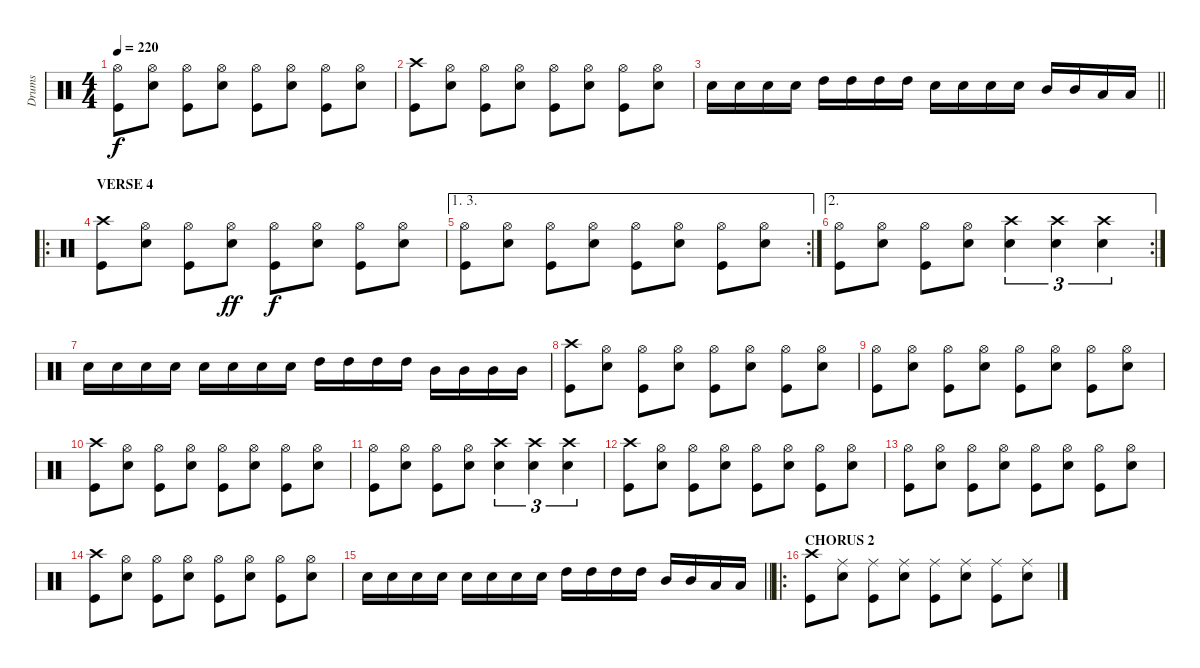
\track ("Drums" "Drums") {instrument percussion}
\staff {score}
\articulation defaults
\ts (4 4)
\tempo 220
\clef neutral
\ks c
("Hi-Hat (open)" "Kick (hit)").8{dy f} ("Hi-Hat (open)" "Snare (hit) 2").8 ("Hi-Hat (open)" "Kick (hit)").8 ("Hi-Hat (open)" "Snare (hit) 2").8 ("Hi-Hat (open)" "Kick (hit)").8 ("Hi-Hat (open)" "Snare (hit) 2").8 ("Hi-Hat (open)" "Kick (hit)").8 ("Hi-Hat (open)" "Snare (hit) 2").8 |
("Crash high (hit)" "Kick (hit)").8 ("Hi-Hat (open)" "Snare (hit) 2").8 ("Hi-Hat (open)" "Kick (hit)").8 ("Hi-Hat (open)" "Snare (hit) 2").8 ("Hi-Hat (open)" "Kick (hit)").8 ("Hi-Hat (open)" "Snare (hit) 2").8 ("Hi-Hat (open)" "Kick (hit)").8 ("Hi-Hat (open)" "Snare (hit) 2").8 |
\barLineRight lightlight "Snare (hit) 2".16 "Snare (hit) 2".16 "Snare (hit) 2".16 "Snare (hit) 2".16 "High Tom (hit)".16 "High Tom (hit)".16 "High Tom (hit)".16 "High Tom (hit)".16 "Snare (hit) 2".16 "Snare (hit) 2".16 "Snare (hit) 2".16 "Snare (hit) 2".16 "Mid Tom (hit)".16 "Mid Tom (hit)".16 "Low Tom (hit)".16 "Low Tom (hit)".16
|
\ro
\section ("" "VERSE 4")
("Crash high (hit)" "Kick (hit)").8 ("Hi-Hat (open)" "Snare (hit) 2").8 ("Hi-Hat (open)" "Kick (hit)").8 ("Hi-Hat (open)" "Snare (hit) 2").8{dy ff} ("Hi-Hat (open)" "Kick (hit)").8{dy f} ("Hi-Hat (open)" "Snare (hit) 2").8 ("Hi-Hat (open)" "Kick (hit)").8 ("Hi-Hat (open)" "Snare (hit) 2").8 |
\ae (1 3)
\rc 2
("Hi-Hat (open)" "Kick (hit)").8 ("Hi-Hat (open)" "Snare (hit) 2").8 ("Hi-Hat (open)" "Kick (hit)").8 ("Hi-Hat (open)" "Snare (hit) 2").8 ("Hi-Hat (open)" "Kick (hit)").8 ("Hi-Hat (open)" "Snare (hit) 2").8 ("Hi-Hat (open)" "Kick (hit)").8 ("Hi-Hat (open)" "Snare (hit) 2").8 |
\ae 2
\rc 2
("Hi-Hat (open)" "Kick (hit)").8 ("Hi-Hat (open)" "Snare (hit) 2").8 ("Hi-Hat (open)" "Kick (hit)").8 ("Hi-Hat (open)" "Snare (hit) 2").8 ("Crash high (hit)" "Snare (hit) 2").4{tu (3 2)} ("Crash high (hit)" "Snare (hit) 2").4{tu (3 2)} ("Crash high (hit)" "Snare (hit) 2").4{tu (3 2)} |
"Snare (hit) 2".16 "Snare (hit) 2".16 "Snare (hit) 2".16 "Snare (hit) 2".16 "Snare (hit) 2".16 "Snare (hit) 2".16 "Snare (hit) 2".16 "Snare (hit) 2".16 "High Tom (hit)".16 "High Tom (hit)".16 "High Tom (hit)".16 "High Tom (hit)".16 "Mid Tom (hit)".16 "Mid Tom (hit)".16 "Mid Tom (hit)".16 "Mid Tom (hit)".16 |
("Crash high (hit)" "Kick (hit)").8 ("Hi-Hat (open)" "Snare (hit) 2").8 ("Hi-Hat (open)" "Kick (hit)").8 ("Hi-Hat (open)" "Snare (hit) 2").8 ("Hi-Hat (open)" "Kick (hit)").8 ("Hi-Hat (open)" "Snare (hit) 2").8 ("Hi-Hat (open)" "Kick (hit)").8 ("Hi-Hat (open)" "Snare (hit) 2").8 |
("Hi-Hat (open)" "Kick (hit)").8 ("Hi-Hat (open)" "Snare (hit) 2").8 ("Hi-Hat (open)" "Kick (hit)").8 ("Hi-Hat (open)" "Snare (hit) 2").8 ("Hi-Hat (open)" "Kick (hit)").8 ("Hi-Hat (open)" "Snare (hit) 2").8 ("Hi-Hat (open)" "Kick (hit)").8 ("Hi-Hat (open)" "Snare (hit) 2").8 |
("Crash high (hit)" "Kick (hit)").8 ("Hi-Hat (open)" "Snare (hit) 2").8 ("Hi-Hat (open)" "Kick (hit)").8 ("Hi-Hat (open)" "Snare (hit) 2").8 ("Hi-Hat (open)" "Kick (hit)").8 ("Hi-Hat (open)" "Snare (hit) 2").8 ("Hi-Hat (open)" "Kick (hit)").8 ("Hi-Hat (open)" "Snare (hit) 2").8 |
("Hi-Hat (open)" "Kick (hit)").8 ("Hi-Hat (open)" "Snare (hit) 2").8 ("Hi-Hat (open)" "Kick (hit)").8 ("Hi-Hat (open)" "Snare (hit) 2").8 ("Crash high (hit)" "Snare (hit) 2").4{tu (3 2)} ("Crash high (hit)" "Snare (hit) 2").4{tu (3 2)} ("Crash high (hit)" "Snare (hit) 2").4{tu (3 2)} |
("Crash high (hit)" "Kick (hit)").8 ("Hi-Hat (open)" "Snare (hit) 2").8 ("Hi-Hat (open)" "Kick (hit)").8 ("Hi-Hat (open)" "Snare (hit) 2").8 ("Hi-Hat (open)" "Kick (hit)").8 ("Hi-Hat (open)" "Snare (hit) 2").8 ("Hi-Hat (open)" "Kick (hit)").8 ("Hi-Hat (open)" "Snare (hit) 2").8 |
("Hi-Hat (open)" "Kick (hit)").8 ("Hi-Hat (open)" "Snare (hit) 2").8 ("Hi-Hat (open)" "Kick (hit)").8 ("Hi-Hat (open)" "Snare (hit) 2").8 ("Hi-Hat (open)" "Kick (hit)").8 ("Hi-Hat (open)" "Snare (hit) 2").8 ("Hi-Hat (open)" "Kick (hit)").8 ("Hi-Hat (open)" "Snare (hit) 2").8 |
("Crash high (hit)" "Kick (hit)").8 ("Hi-Hat (open)" "Snare (hit) 2").8 ("Hi-Hat (open)" "Kick (hit)").8 ("Hi-Hat (open)" "Snare (hit) 2").8 ("Hi-Hat (open)" "Kick (hit)").8 ("Hi-Hat (open)" "Snare (hit) 2").8 ("Hi-Hat (open)" "Kick (hit)").8 ("Hi-Hat (open)" "Snare (hit) 2").8 |
\barLineRight lightlight "Snare (hit) 2".16 "Snare (hit) 2".16 "Snare (hit) 2".16 "Snare (hit) 2".16 "Snare (hit) 2".16 "Snare (hit) 2".16 "Snare (hit) 2".16 "Snare (hit) 2".16 "High Tom (hit)".16 "High Tom (hit)".16 "High Tom (hit)".16 "High Tom (hit)".16 "Mid Tom (hit)".16 "Mid Tom (hit)".16 "Low Tom (hit)".16 "Low Tom (hit)".16
|
\ro
\section ("" "CHORUS 2")
("Crash high (hit)" "Kick (hit)").8 ("Ride (middle)" "Snare (hit) 2").8 ("Ride (middle)" "Kick (hit)").8 ("Ride (middle)" "Snare (hit) 2").8 ("Ride (middle)" "Kick (hit)").8 ("Ride (middle)" "Snare (hit) 2").8 ("Ride (middle)" "Kick (hit)").8 ("Ride (middle)" "Snare (hit) 2").8
